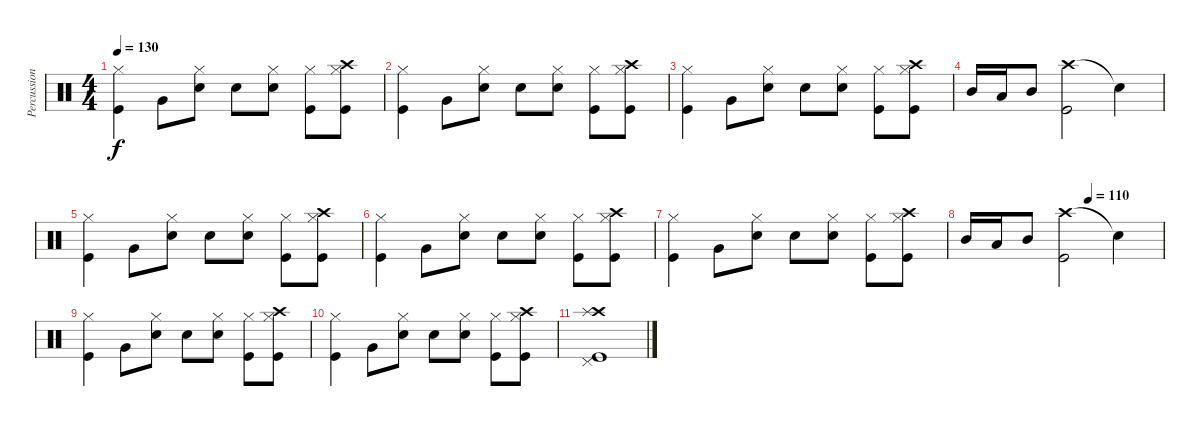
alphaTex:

\track ("Percussion" "Percussion") {instrument percussion}
\staff {score}
\articulation defaults
\ts (4 4)
\tempo 130
\clef neutral
\ks c
("Kick (hit)" "Hi-Hat (closed)").4{dy f} "Very Low Tom (hit)".8 ("Snare (hit) 2" "Hi-Hat (closed)").8 "Snare (hit) 2".8 ("Snare (hit) 2" "Hi-Hat (closed)").8 ("Kick (hit)" "Hi-Hat (closed)").8 ("Kick (hit)" "Crash high (hit)" "Hi-Hat (closed)").8 |
("Kick (hit)" "Hi-Hat (closed)").4 "Very Low Tom (hit)".8 ("Snare (hit) 2" "Hi-Hat (closed)").8 "Snare (hit) 2".8 ("Snare (hit) 2" "Hi-Hat (closed)").8 ("Kick (hit)" "Hi-Hat (closed)").8 ("Kick (hit)" "Crash high (hit)" "Hi-Hat (closed)").8 |
("Kick (hit)" "Hi-Hat (closed)").4 "Very Low Tom (hit)".8 ("Snare (hit) 2" "Hi-Hat (closed)").8 "Snare (hit) 2".8 ("Snare (hit) 2" "Hi-Hat (closed)").8 ("Kick (hit)" "Hi-Hat (closed)").8 ("Kick (hit)" "Crash high (hit)" "Hi-Hat (closed)").8 |
"Mid Tom (hit)".16 "Low Tom (hit)".16 "Mid Tom (hit)".8 ("Crash high (hit)" "Kick (hit)").2 "Snare (hit)"{t}.4 |
("Kick (hit)" "Hi-Hat (closed)").4 "Very Low Tom (hit)".8 ("Snare (hit) 2" "Hi-Hat (closed)").8 "Snare (hit) 2".8 ("Snare (hit) 2" "Hi-Hat (closed)").8 ("Kick (hit)" "Hi-Hat (closed)").8 ("Kick (hit)" "Crash high (hit)" "Hi-Hat (closed)").8 |
("Kick (hit)" "Hi-Hat (closed)").4 "Very Low Tom (hit)".8 ("Snare (hit) 2" "Hi-Hat (closed)").8 "Snare (hit) 2".8 ("Snare (hit) 2" "Hi-Hat (closed)").8 ("Kick (hit)" "Hi-Hat (closed)").8 ("Kick (hit)" "Crash high (hit)" "Hi-Hat (closed)").8 |
("Kick (hit)" "Hi-Hat (closed)").4 "Very Low Tom (hit)".8 ("Snare (hit) 2" "Hi-Hat (closed)").8 "Snare (hit) 2".8 ("Snare (hit) 2" "Hi-Hat (closed)").8 ("Kick (hit)" "Hi-Hat (closed)").8 ("Kick (hit)" "Crash high (hit)" "Hi-Hat (closed)").8 |
\tempo (110 0.625)
"Mid Tom (hit)".16 "Low Tom (hit)".16 "Mid Tom (hit)".8 ("Crash high (hit)" "Kick (hit)").2 "Snare (hit)"{t}.4 |
("Kick (hit)" "Hi-Hat (closed)").4 "Very Low Tom (hit)".8 ("Snare (hit) 2" "Hi-Hat (closed)").8 "Snare (hit) 2".8 ("Snare (hit) 2" "Hi-Hat (closed)").8 ("Kick (hit)" "Hi-Hat (closed)").8 ("Kick (hit)" "Crash high (hit)" "Hi-Hat (closed)").8 |
("Kick (hit)" "Hi-Hat (closed)").4 "Very Low Tom (hit)".8 ("Snare (hit) 2" "Hi-Hat (closed)").8 "Snare (hit) 2".8 ("Snare (hit) 2" "Hi-Hat (closed)").8 ("Kick (hit)" "Hi-Hat (closed)").8 ("Kick (hit)" "Crash high (hit)" "Hi-Hat (closed)").8 |
("Crash high (hit)" "Kick (hit)" "Pedal Hi-Hat (hit)" "Splash (hit)").1
